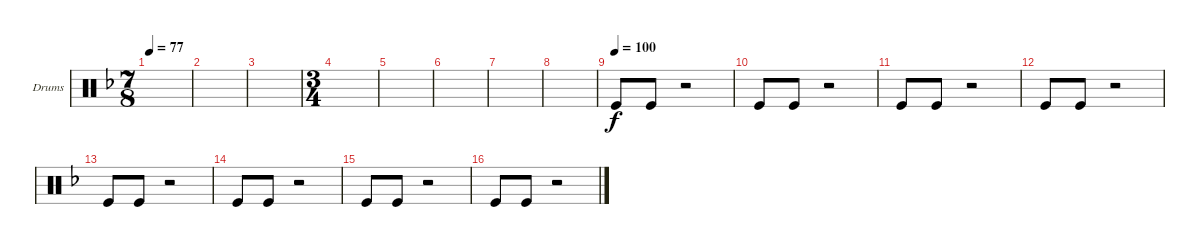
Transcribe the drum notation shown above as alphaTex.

\defaultSystemsLayout 4
\bracketExtendMode groupsimilarinstruments
\firstSystemTrackNameOrientation horizontal
\otherSystemsTrackNameOrientation horizontal
\track ("[Eli] Drumkit" "Drums") {instrument percussion}
\staff {score}
\articulation defaults
\ts (7 8)
\tempo 77
\clef neutral
\ks dminor
|
|
|
\ts (3 4)
|
|
|
|
|
\tempo (100)
"Kick (hit)".8 "Kick (hit)".8 r.2 |
"Kick (hit)".8 "Kick (hit)".8 r.2 |
"Kick (hit)".8 "Kick (hit)".8 r.2 |
"Kick (hit)".8 "Kick (hit)".8 r.2 |
"Kick (hit)".8 "Kick (hit)".8 r.2 |
"Kick (hit)".8 "Kick (hit)".8 r.2 |
"Kick (hit)".8 "Kick (hit)".8 r.2 |
"Kick (hit)".8 "Kick (hit)".8 r.2
